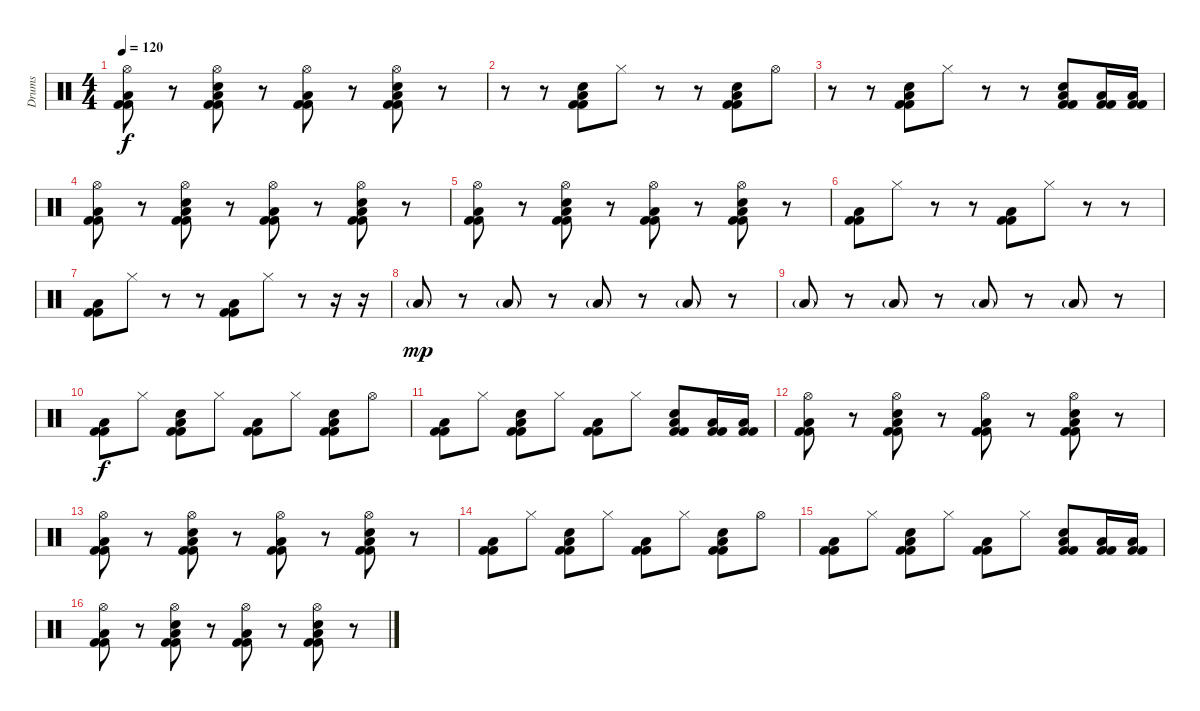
\track ("Drums" "Drums") {instrument percussion}
\staff {score}
\articulation defaults
\ts (4 4)
\tempo 120
\clef neutral
\ks c
("Hi-Hat (open)" "Kick (hit) 2" "Low Floor Tom (hit)" "Kick (hit) 2").8{dy f} r.8 ("Hi-Hat (open)" "Electric Snare (hit)" "Kick (hit) 2" "Low Floor Tom (hit)" "Kick (hit) 2").8 r.8 ("Hi-Hat (open)" "Kick (hit) 2" "Low Floor Tom (hit)" "Kick (hit) 2").8 r.8 ("Hi-Hat (open)" "Electric Snare (hit)" "Kick (hit) 2" "Low Floor Tom (hit)" "Kick (hit) 2").8 r.8 |
r.8 r.8 ("Electric Snare (hit)" "Kick (hit) 2" "Low Floor Tom (hit)" "Kick (hit) 2").8 "Hi-Hat (closed)".8 r.8 r.8 ("Electric Snare (hit)" "Kick (hit) 2" "Low Floor Tom (hit)" "Kick (hit) 2").8 "Hi-Hat (open)".8 |
r.8 r.8 ("Electric Snare (hit)" "Kick (hit) 2" "Low Floor Tom (hit)" "Kick (hit) 2").8 "Hi-Hat (closed)".8 r.8 r.8 ("Electric Snare (hit)" "Kick (hit) 2" "Low Floor Tom (hit)" "Kick (hit) 2").8 ("Kick (hit) 2" "Low Floor Tom (hit)" "Kick (hit) 2").16 ("Kick (hit) 2" "Low Floor Tom (hit)" "Kick (hit) 2").16 |
("Hi-Hat (open)" "Kick (hit) 2" "Low Floor Tom (hit)" "Kick (hit) 2").8 r.8 ("Hi-Hat (open)" "Electric Snare (hit)" "Kick (hit) 2" "Low Floor Tom (hit)" "Kick (hit) 2").8 r.8 ("Hi-Hat (open)" "Kick (hit) 2" "Low Floor Tom (hit)" "Kick (hit) 2").8 r.8 ("Hi-Hat (open)" "Electric Snare (hit)" "Kick (hit) 2" "Low Floor Tom (hit)" "Kick (hit) 2").8 r.8 |
("Hi-Hat (open)" "Kick (hit) 2" "Low Floor Tom (hit)" "Kick (hit) 2").8 r.8 ("Hi-Hat (open)" "Electric Snare (hit)" "Kick (hit) 2" "Low Floor Tom (hit)" "Kick (hit) 2").8 r.8 ("Hi-Hat (open)" "Kick (hit) 2" "Low Floor Tom (hit)" "Kick (hit) 2").8 r.8 ("Hi-Hat (open)" "Electric Snare (hit)" "Kick (hit) 2" "Low Floor Tom (hit)" "Kick (hit) 2").8 r.8 |
("Kick (hit) 2" "Low Floor Tom (hit)" "Kick (hit) 2").8 "Hi-Hat (closed)".8 r.8 r.8 ("Kick (hit) 2" "Low Floor Tom (hit)" "Kick (hit) 2").8 "Hi-Hat (closed)".8 r.8 r.8 |
("Kick (hit) 2" "Low Floor Tom (hit)" "Kick (hit) 2").8 "Hi-Hat (closed)".8 r.8 r.8 ("Kick (hit) 2" "Low Floor Tom (hit)" "Kick (hit) 2").8 "Hi-Hat (closed)".8 r.8 r.16 r.16 |
"Low Floor Tom (hit)"{g}.8{dy mp} r.8 "Low Floor Tom (hit)"{g}.8 r.8 "Low Floor Tom (hit)"{g}.8 r.8 "Low Floor Tom (hit)"{g}.8 r.8 |
"Low Floor Tom (hit)"{g}.8 r.8 "Low Floor Tom (hit)"{g}.8 r.8 "Low Floor Tom (hit)"{g}.8 r.8 "Low Floor Tom (hit)"{g}.8 r.8 |
("Kick (hit) 2" "Low Floor Tom (hit)" "Kick (hit) 2").8{dy f} "Hi-Hat (closed)".8 ("Electric Snare (hit)" "Kick (hit) 2" "Low Floor Tom (hit)" "Kick (hit) 2").8 "Hi-Hat (closed)".8 ("Kick (hit) 2" "Low Floor Tom (hit)" "Kick (hit) 2").8 "Hi-Hat (closed)".8 ("Electric Snare (hit)" "Kick (hit) 2" "Low Floor Tom (hit)" "Kick (hit) 2").8 "Hi-Hat (open)".8 |
("Kick (hit) 2" "Low Floor Tom (hit)" "Kick (hit) 2").8 "Hi-Hat (closed)".8 ("Electric Snare (hit)" "Kick (hit) 2" "Low Floor Tom (hit)" "Kick (hit) 2").8 "Hi-Hat (closed)".8 ("Kick (hit) 2" "Low Floor Tom (hit)" "Kick (hit) 2").8 "Hi-Hat (closed)".8 ("Electric Snare (hit)" "Kick (hit) 2" "Low Floor Tom (hit)" "Kick (hit) 2").8 ("Kick (hit) 2" "Low Floor Tom (hit)" "Kick (hit) 2").16 ("Kick (hit) 2" "Low Floor Tom (hit)" "Kick (hit) 2").16 |
("Hi-Hat (open)" "Kick (hit) 2" "Low Floor Tom (hit)" "Kick (hit) 2").8 r.8 ("Hi-Hat (open)" "Electric Snare (hit)" "Kick (hit) 2" "Low Floor Tom (hit)" "Kick (hit) 2").8 r.8 ("Hi-Hat (open)" "Kick (hit) 2" "Low Floor Tom (hit)" "Kick (hit) 2").8 r.8 ("Hi-Hat (open)" "Electric Snare (hit)" "Kick (hit) 2" "Low Floor Tom (hit)" "Kick (hit) 2").8 r.8 |
("Hi-Hat (open)" "Kick (hit) 2" "Low Floor Tom (hit)" "Kick (hit) 2").8 r.8 ("Hi-Hat (open)" "Electric Snare (hit)" "Kick (hit) 2" "Low Floor Tom (hit)" "Kick (hit) 2").8 r.8 ("Hi-Hat (open)" "Kick (hit) 2" "Low Floor Tom (hit)" "Kick (hit) 2").8 r.8 ("Hi-Hat (open)" "Electric Snare (hit)" "Kick (hit) 2" "Low Floor Tom (hit)" "Kick (hit) 2").8 r.8 |
("Kick (hit) 2" "Low Floor Tom (hit)" "Kick (hit) 2").8 "Hi-Hat (closed)".8 ("Electric Snare (hit)" "Kick (hit) 2" "Low Floor Tom (hit)" "Kick (hit) 2").8 "Hi-Hat (closed)".8 ("Kick (hit) 2" "Low Floor Tom (hit)" "Kick (hit) 2").8 "Hi-Hat (closed)".8 ("Electric Snare (hit)" "Kick (hit) 2" "Low Floor Tom (hit)" "Kick (hit) 2").8 "Hi-Hat (open)".8 |
("Kick (hit) 2" "Low Floor Tom (hit)" "Kick (hit) 2").8 "Hi-Hat (closed)".8 ("Electric Snare (hit)" "Kick (hit) 2" "Low Floor Tom (hit)" "Kick (hit) 2").8 "Hi-Hat (closed)".8 ("Kick (hit) 2" "Low Floor Tom (hit)" "Kick (hit) 2").8 "Hi-Hat (closed)".8 ("Electric Snare (hit)" "Kick (hit) 2" "Low Floor Tom (hit)" "Kick (hit) 2").8 ("Kick (hit) 2" "Low Floor Tom (hit)" "Kick (hit) 2").16 ("Kick (hit) 2" "Low Floor Tom (hit)" "Kick (hit) 2").16 |
("Hi-Hat (open)" "Kick (hit) 2" "Low Floor Tom (hit)" "Kick (hit) 2").8 r.8 ("Hi-Hat (open)" "Electric Snare (hit)" "Kick (hit) 2" "Low Floor Tom (hit)" "Kick (hit) 2").8 r.8 ("Hi-Hat (open)" "Kick (hit) 2" "Low Floor Tom (hit)" "Kick (hit) 2").8 r.8 ("Hi-Hat (open)" "Electric Snare (hit)" "Kick (hit) 2" "Low Floor Tom (hit)" "Kick (hit) 2").8 r.8
